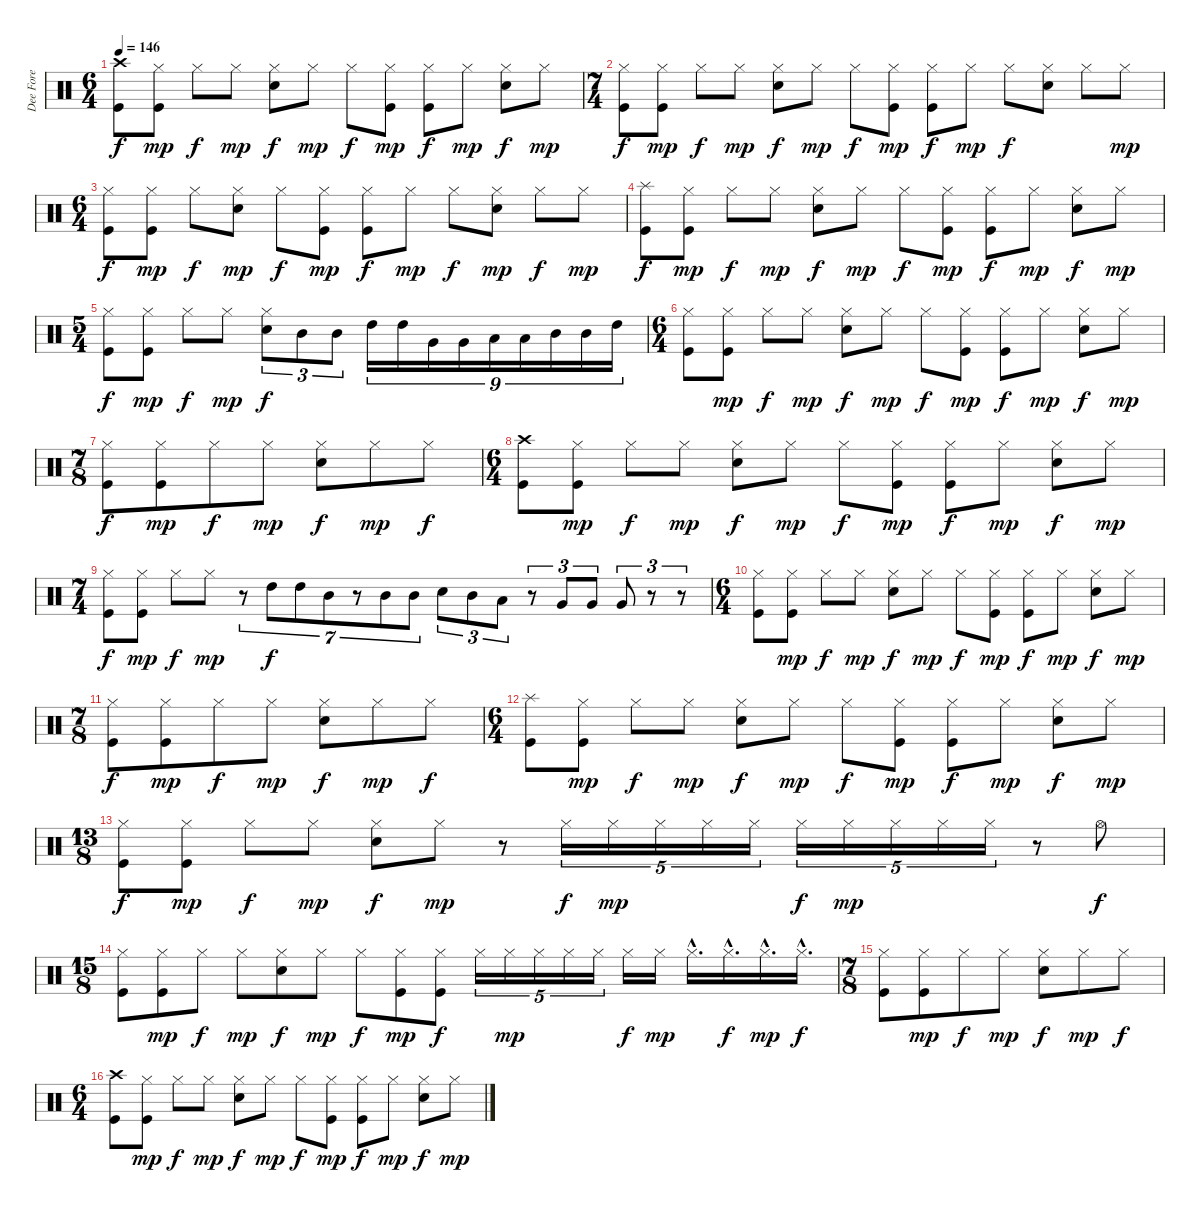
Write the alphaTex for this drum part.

\track ("Dee Fore" "Dee Fore") {instrument percussion}
\staff {score}
\articulation defaults
\ts (6 4)
\tempo 146
\clef neutral
\ks c
("Crash high (hit)" "Kick (hit)").8{dy f} ("Hi-Hat (closed)" "Kick (hit)").8{dy mp} "Hi-Hat (closed)".8{dy f} "Hi-Hat (closed)".8{dy mp} ("Hi-Hat (closed)" "Electric Snare (hit)").8{dy f} "Hi-Hat (closed)".8{dy mp} "Hi-Hat (closed)".8{dy f} ("Hi-Hat (closed)" "Kick (hit)").8{dy mp} ("Hi-Hat (closed)" "Kick (hit)").8{dy f} "Hi-Hat (closed)".8{dy mp} ("Hi-Hat (closed)" "Electric Snare (hit)").8{dy f} "Hi-Hat (closed)".8{dy mp} |
\ts (7 4)
("Hi-Hat (closed)" "Kick (hit)").8{dy f} ("Hi-Hat (closed)" "Kick (hit)").8{dy mp} "Hi-Hat (closed)".8{dy f} "Hi-Hat (closed)".8{dy mp} ("Hi-Hat (closed)" "Electric Snare (hit)").8{dy f} "Hi-Hat (closed)".8{dy mp} "Hi-Hat (closed)".8{dy f} ("Hi-Hat (closed)" "Kick (hit)").8{dy mp} ("Hi-Hat (closed)" "Kick (hit)").8{dy f} "Hi-Hat (closed)".8{dy mp} "Hi-Hat (closed)".8{dy f} ("Hi-Hat (closed)" "Electric Snare (hit)").8 "Hi-Hat (closed)".8 "Hi-Hat (closed)".8{dy mp} |
\ts (6 4)
("Hi-Hat (closed)" "Kick (hit)").8{dy f} ("Hi-Hat (closed)" "Kick (hit)").8{dy mp} "Hi-Hat (closed)".8{dy f} ("Hi-Hat (closed)" "Electric Snare (hit)").8{dy mp} "Hi-Hat (closed)".8{dy f} ("Hi-Hat (closed)" "Kick (hit)").8{dy mp} ("Hi-Hat (closed)" "Kick (hit)").8{dy f} "Hi-Hat (closed)".8{dy mp} "Hi-Hat (closed)".8{dy f} ("Hi-Hat (closed)" "Electric Snare (hit)").8{dy mp} "Hi-Hat (closed)".8{dy f} "Hi-Hat (closed)".8{dy mp} |
("Splash (hit)" "Kick (hit)").8{dy f} ("Hi-Hat (closed)" "Kick (hit)").8{dy mp} "Hi-Hat (closed)".8{dy f} "Hi-Hat (closed)".8{dy mp} ("Hi-Hat (closed)" "Electric Snare (hit)").8{dy f} "Hi-Hat (closed)".8{dy mp} "Hi-Hat (closed)".8{dy f} ("Hi-Hat (closed)" "Kick (hit)").8{dy mp} ("Hi-Hat (closed)" "Kick (hit)").8{dy f} "Hi-Hat (closed)".8{dy mp} ("Hi-Hat (closed)" "Electric Snare (hit)").8{dy f} "Hi-Hat (closed)".8{dy mp} |
\ts (5 4)
("Hi-Hat (closed)" "Kick (hit)").8{dy f} ("Hi-Hat (closed)" "Kick (hit)").8{dy mp} "Hi-Hat (closed)".8{dy f} "Hi-Hat (closed)".8{dy mp} ("Hi-Hat (closed)" "Electric Snare (hit)").8{tu (3 2) dy f} "Mid Tom (hit)".8{tu (3 2)} "Mid Tom (hit)".8{tu (3 2)} "High Tom (hit)".16{tu (9 8)} "High Tom (hit)".16{tu (9 8)} "Very Low Tom (hit)".16{tu (9 8)} "Very Low Tom (hit)".16{tu (9 8)} "Low Tom (hit)".16{tu (9 8)} "Low Tom (hit)".16{tu (9 8)} "Mid Tom (hit)".16{tu (9 8)} "Mid Tom (hit)".16{tu (9 8)} "High Tom (hit)".16{tu (9 8)} |
\ts (6 4)
("Hi-Hat (closed)" "Kick (hit)").8 ("Hi-Hat (closed)" "Kick (hit)").8{dy mp} "Hi-Hat (closed)".8{dy f} "Hi-Hat (closed)".8{dy mp} ("Hi-Hat (closed)" "Electric Snare (hit)").8{dy f} "Hi-Hat (closed)".8{dy mp} "Hi-Hat (closed)".8{dy f} ("Hi-Hat (closed)" "Kick (hit)").8{dy mp} ("Hi-Hat (closed)" "Kick (hit)").8{dy f} "Hi-Hat (closed)".8{dy mp} ("Hi-Hat (closed)" "Electric Snare (hit)").8{dy f} "Hi-Hat (closed)".8{dy mp} |
\ts (7 8)
("Hi-Hat (closed)" "Kick (hit)").8{dy f} ("Hi-Hat (closed)" "Kick (hit)").8{dy mp} "Hi-Hat (closed)".8{dy f} "Hi-Hat (closed)".8{dy mp} ("Hi-Hat (closed)" "Electric Snare (hit)").8{dy f} "Hi-Hat (closed)".8{dy mp} "Hi-Hat (closed)".8{dy f} |
\ts (6 4)
("Crash high (hit)" "Kick (hit)").8 ("Hi-Hat (closed)" "Kick (hit)").8{dy mp} "Hi-Hat (closed)".8{dy f} "Hi-Hat (closed)".8{dy mp} ("Hi-Hat (closed)" "Electric Snare (hit)").8{dy f} "Hi-Hat (closed)".8{dy mp} "Hi-Hat (closed)".8{dy f} ("Hi-Hat (closed)" "Kick (hit)").8{dy mp} ("Hi-Hat (closed)" "Kick (hit)").8{dy f} "Hi-Hat (closed)".8{dy mp} ("Hi-Hat (closed)" "Electric Snare (hit)").8{dy f} "Hi-Hat (closed)".8{dy mp} |
\ts (7 4)
("Hi-Hat (closed)" "Kick (hit)").8{dy f} ("Hi-Hat (closed)" "Kick (hit)").8{dy mp} "Hi-Hat (closed)".8{dy f} "Hi-Hat (closed)".8{dy mp} r.8{tu (7 4)} "High Tom (hit)".8{tu (7 4) dy f} "High Tom (hit)".8{tu (7 4)} "Mid Tom (hit)".8{tu (7 4)} r.8{tu (7 4)} "Mid Tom (hit)".8{tu (7 4)} "Mid Tom (hit)".8{tu (7 4)} "Electric Snare (hit)".8{tu (3 2)} "Mid Tom (hit)".8{tu (3 2)} "Low Tom (hit)".8{tu (3 2)} r.8{tu (3 2)} "Very Low Tom (hit)".8{tu (3 2)} "Very Low Tom (hit)".8{tu (3 2)} "Very Low Tom (hit)".8{tu (3 2)} r.8{tu (3 2)} r.8{tu (3 2)} |
\ts (6 4)
("Hi-Hat (closed)" "Kick (hit)").8 ("Hi-Hat (closed)" "Kick (hit)").8{dy mp} "Hi-Hat (closed)".8{dy f} "Hi-Hat (closed)".8{dy mp} ("Hi-Hat (closed)" "Electric Snare (hit)").8{dy f} "Hi-Hat (closed)".8{dy mp} "Hi-Hat (closed)".8{dy f} ("Hi-Hat (closed)" "Kick (hit)").8{dy mp} ("Hi-Hat (closed)" "Kick (hit)").8{dy f} "Hi-Hat (closed)".8{dy mp} ("Hi-Hat (closed)" "Electric Snare (hit)").8{dy f} "Hi-Hat (closed)".8{dy mp} |
\ts (7 8)
("Hi-Hat (closed)" "Kick (hit)").8{dy f} ("Hi-Hat (closed)" "Kick (hit)").8{dy mp} "Hi-Hat (closed)".8{dy f} "Hi-Hat (closed)".8{dy mp} ("Hi-Hat (closed)" "Electric Snare (hit)").8{dy f} "Hi-Hat (closed)".8{dy mp} "Hi-Hat (closed)".8{dy f} |
\ts (6 4)
("Splash (hit)" "Kick (hit)").8 ("Hi-Hat (closed)" "Kick (hit)").8{dy mp} "Hi-Hat (closed)".8{dy f} "Hi-Hat (closed)".8{dy mp} ("Hi-Hat (closed)" "Electric Snare (hit)").8{dy f} "Hi-Hat (closed)".8{dy mp} "Hi-Hat (closed)".8{dy f} ("Hi-Hat (closed)" "Kick (hit)").8{dy mp} ("Hi-Hat (closed)" "Kick (hit)").8{dy f} "Hi-Hat (closed)".8{dy mp} ("Hi-Hat (closed)" "Electric Snare (hit)").8{dy f} "Hi-Hat (closed)".8{dy mp} |
\ts (13 8)
("Hi-Hat (closed)" "Kick (hit)").8{dy f} ("Hi-Hat (closed)" "Kick (hit)").8{dy mp} "Hi-Hat (closed)".8{dy f} "Hi-Hat (closed)".8{dy mp} ("Hi-Hat (closed)" "Electric Snare (hit)").8{dy f} "Hi-Hat (closed)".8{dy mp} r.8 "Hi-Hat (closed)".16{tu (5 4) dy f} "Hi-Hat (closed)".16{tu (5 4) dy mp} "Hi-Hat (closed)".16{tu (5 4)} "Hi-Hat (closed)".16{tu (5 4)} "Hi-Hat (closed)".16{tu (5 4)} "Hi-Hat (closed)".16{tu (5 4) dy f} "Hi-Hat (closed)".16{tu (5 4) dy mp} "Hi-Hat (closed)".16{tu (5 4)} "Hi-Hat (closed)".16{tu (5 4)} "Hi-Hat (closed)".16{tu (5 4)} r.8 "Hi-Hat (open)".8{dy f} |
\ts (15 8)
("Hi-Hat (closed)" "Kick (hit)").8 ("Hi-Hat (closed)" "Kick (hit)").8{dy mp} "Hi-Hat (closed)".8{dy f} "Hi-Hat (closed)".8{dy mp} ("Hi-Hat (closed)" "Electric Snare (hit)").8{dy f} "Hi-Hat (closed)".8{dy mp} "Hi-Hat (closed)".8{dy f} ("Hi-Hat (closed)" "Kick (hit)").8{dy mp} ("Hi-Hat (closed)" "Kick (hit)").8{dy f} "Hi-Hat (closed)".16{tu (5 4)} "Hi-Hat (closed)".16{tu (5 4) dy mp} "Hi-Hat (closed)".16{tu (5 4)} "Hi-Hat (closed)".16{tu (5 4)} "Hi-Hat (closed)".16{tu (5 4)} "Hi-Hat (closed)".16{dy f} "Hi-Hat (closed)".16{dy mp} "Hi-Hat (closed)"{hac}.16{d} "Hi-Hat (closed)"{hac}.16{d dy f} "Hi-Hat (closed)"{hac}.16{d dy mp} "Hi-Hat (closed)"{hac}.16{d dy f} |
\ts (7 8)
("Hi-Hat (closed)" "Kick (hit)").8 ("Hi-Hat (closed)" "Kick (hit)").8{dy mp} "Hi-Hat (closed)".8{dy f} "Hi-Hat (closed)".8{dy mp} ("Hi-Hat (closed)" "Electric Snare (hit)").8{dy f} "Hi-Hat (closed)".8{dy mp} "Hi-Hat (closed)".8{dy f} |
\ts (6 4)
("Crash high (hit)" "Kick (hit)").8 ("Hi-Hat (closed)" "Kick (hit)").8{dy mp} "Hi-Hat (closed)".8{dy f} "Hi-Hat (closed)".8{dy mp} ("Hi-Hat (closed)" "Electric Snare (hit)").8{dy f} "Hi-Hat (closed)".8{dy mp} "Hi-Hat (closed)".8{dy f} ("Hi-Hat (closed)" "Kick (hit)").8{dy mp} ("Hi-Hat (closed)" "Kick (hit)").8{dy f} "Hi-Hat (closed)".8{dy mp} ("Hi-Hat (closed)" "Electric Snare (hit)").8{dy f} "Hi-Hat (closed)".8{dy mp}
